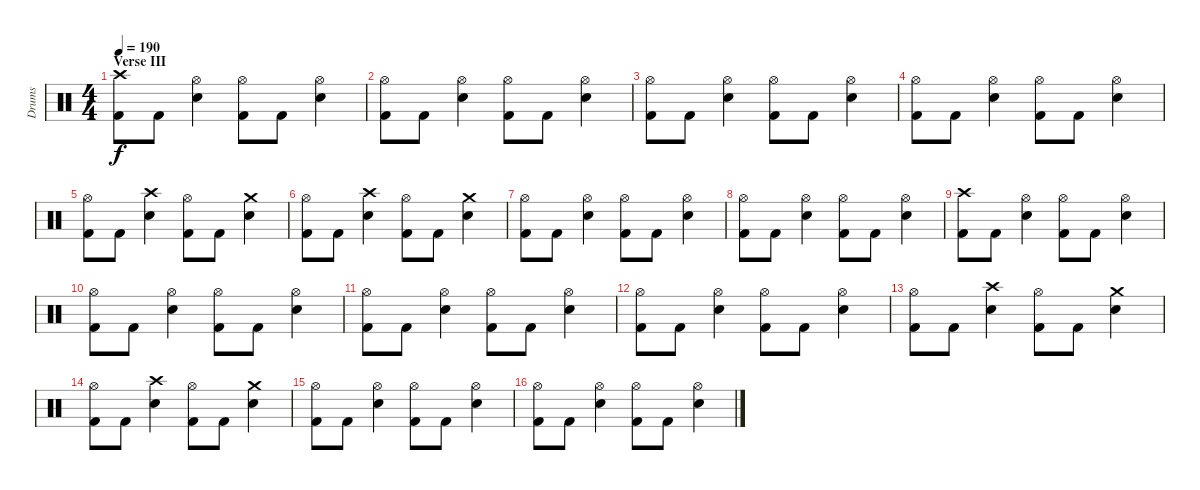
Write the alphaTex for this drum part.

\track ("Drums" "Drums") {instrument percussion}
\staff {score}
\articulation defaults
\ts (4 4)
\section ("" "Verse III")
\tempo 190
\clef neutral
\ks c
("Crash high (hit)" "Kick (hit) 2").8{dy f} "Kick (hit) 2".8 ("Hi-Hat (open)" "Snare (hit) 2").4 ("Hi-Hat (open)" "Kick (hit) 2").8 "Kick (hit) 2".8 ("Hi-Hat (open)" "Snare (hit) 2").4 |
("Hi-Hat (open)" "Kick (hit) 2").8 "Kick (hit) 2".8 ("Hi-Hat (open)" "Snare (hit) 2").4 ("Hi-Hat (open)" "Kick (hit) 2").8 "Kick (hit) 2".8 ("Hi-Hat (open)" "Snare (hit) 2").4 |
("Hi-Hat (open)" "Kick (hit) 2").8 "Kick (hit) 2".8 ("Hi-Hat (open)" "Snare (hit) 2").4 ("Hi-Hat (open)" "Kick (hit) 2").8 "Kick (hit) 2".8 ("Hi-Hat (open)" "Snare (hit) 2").4 |
("Hi-Hat (open)" "Kick (hit) 2").8 "Kick (hit) 2".8 ("Hi-Hat (open)" "Snare (hit) 2").4 ("Hi-Hat (open)" "Kick (hit) 2").8 "Kick (hit) 2".8 ("Hi-Hat (open)" "Snare (hit) 2").4 |
("Hi-Hat (open)" "Kick (hit) 2").8 "Kick (hit) 2".8 ("Crash high (hit)" "Snare (hit) 2").4 ("Hi-Hat (open)" "Kick (hit) 2").8 "Kick (hit) 2".8 ("Crash medium (hit)" "Snare (hit) 2").4 |
("Hi-Hat (open)" "Kick (hit) 2").8 "Kick (hit) 2".8 ("Crash high (hit)" "Snare (hit) 2").4 ("Hi-Hat (open)" "Kick (hit) 2").8 "Kick (hit) 2".8 ("Crash medium (hit)" "Snare (hit) 2").4 |
("Hi-Hat (open)" "Kick (hit) 2").8 "Kick (hit) 2".8 ("Hi-Hat (open)" "Snare (hit) 2").4 ("Hi-Hat (open)" "Kick (hit) 2").8 "Kick (hit) 2".8 ("Hi-Hat (open)" "Snare (hit) 2").4 |
("Hi-Hat (open)" "Kick (hit) 2").8 "Kick (hit) 2".8 ("Hi-Hat (open)" "Snare (hit) 2").4 ("Hi-Hat (open)" "Kick (hit) 2").8 "Kick (hit) 2".8 ("Hi-Hat (open)" "Snare (hit) 2").4 |
("Crash high (hit)" "Kick (hit) 2").8 "Kick (hit) 2".8 ("Hi-Hat (open)" "Snare (hit) 2").4 ("Hi-Hat (open)" "Kick (hit) 2").8 "Kick (hit) 2".8 ("Hi-Hat (open)" "Snare (hit) 2").4 |
("Hi-Hat (open)" "Kick (hit) 2").8 "Kick (hit) 2".8 ("Hi-Hat (open)" "Snare (hit) 2").4 ("Hi-Hat (open)" "Kick (hit) 2").8 "Kick (hit) 2".8 ("Hi-Hat (open)" "Snare (hit) 2").4 |
("Hi-Hat (open)" "Kick (hit) 2").8 "Kick (hit) 2".8 ("Hi-Hat (open)" "Snare (hit) 2").4 ("Hi-Hat (open)" "Kick (hit) 2").8 "Kick (hit) 2".8 ("Hi-Hat (open)" "Snare (hit) 2").4 |
("Hi-Hat (open)" "Kick (hit) 2").8 "Kick (hit) 2".8 ("Hi-Hat (open)" "Snare (hit) 2").4 ("Hi-Hat (open)" "Kick (hit) 2").8 "Kick (hit) 2".8 ("Hi-Hat (open)" "Snare (hit) 2").4 |
("Hi-Hat (open)" "Kick (hit) 2").8 "Kick (hit) 2".8 ("Crash high (hit)" "Snare (hit) 2").4 ("Hi-Hat (open)" "Kick (hit) 2").8 "Kick (hit) 2".8 ("Crash medium (hit)" "Snare (hit) 2").4 |
("Hi-Hat (open)" "Kick (hit) 2").8 "Kick (hit) 2".8 ("Crash high (hit)" "Snare (hit) 2").4 ("Hi-Hat (open)" "Kick (hit) 2").8 "Kick (hit) 2".8 ("Crash medium (hit)" "Snare (hit) 2").4 |
("Hi-Hat (open)" "Kick (hit) 2").8 "Kick (hit) 2".8 ("Hi-Hat (open)" "Snare (hit) 2").4 ("Hi-Hat (open)" "Kick (hit) 2").8 "Kick (hit) 2".8 ("Hi-Hat (open)" "Snare (hit) 2").4 |
("Hi-Hat (open)" "Kick (hit) 2").8 "Kick (hit) 2".8 ("Hi-Hat (open)" "Snare (hit) 2").4 ("Hi-Hat (open)" "Kick (hit) 2").8 "Kick (hit) 2".8 ("Hi-Hat (open)" "Snare (hit) 2").4
